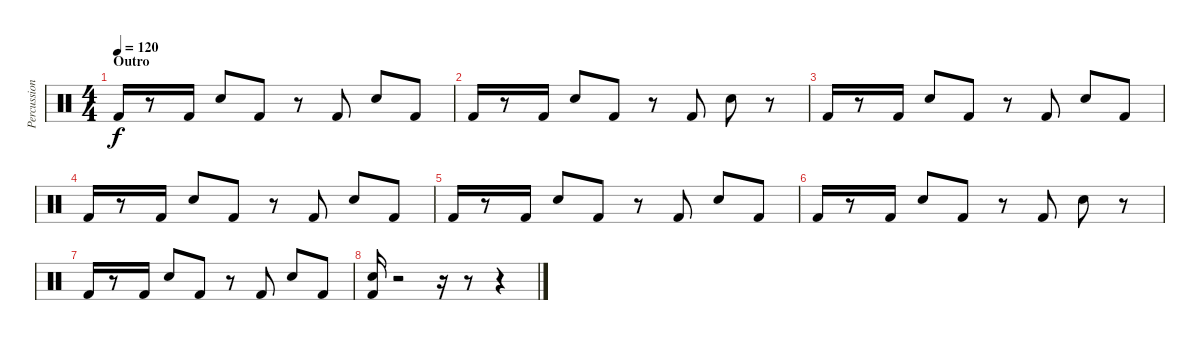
\track ("Percussion" "Percussion") {instrument percussion}
\staff {score}
\articulation defaults
\ts (4 4)
\section ("" "Outro")
\tempo 120
\clef neutral
\ks c "Kick (hit) 2".16{dy f}
r.8 "Kick (hit) 2".16 "Electric Snare (hit)".8 "Kick (hit) 2".8 r.8 "Kick (hit) 2".8 "Snare (hit) 2".8 "Kick (hit) 2".8 |
"Kick (hit) 2".16 r.8 "Kick (hit) 2".16 "Electric Snare (hit)".8 "Kick (hit) 2".8 r.8 "Kick (hit) 2".8 "Snare (hit) 2".8 r.8 |
"Kick (hit) 2".16 r.8 "Kick (hit) 2".16 "Electric Snare (hit)".8 "Kick (hit) 2".8 r.8 "Kick (hit) 2".8 "Snare (hit) 2".8 "Kick (hit) 2".8 |
"Kick (hit) 2".16 r.8 "Kick (hit) 2".16 "Electric Snare (hit)".8 "Kick (hit) 2".8 r.8 "Kick (hit) 2".8 "Snare (hit) 2".8 "Kick (hit) 2".8 |
"Kick (hit) 2".16 r.8 "Kick (hit) 2".16 "Electric Snare (hit)".8 "Kick (hit) 2".8 r.8 "Kick (hit) 2".8 "Snare (hit) 2".8 "Kick (hit) 2".8 |
"Kick (hit) 2".16 r.8 "Kick (hit) 2".16 "Electric Snare (hit)".8 "Kick (hit) 2".8 r.8 "Kick (hit) 2".8 "Snare (hit) 2".8 r.8 |
"Kick (hit) 2".16 r.8 "Kick (hit) 2".16 "Electric Snare (hit)".8 "Kick (hit) 2".8 r.8 "Kick (hit) 2".8 "Snare (hit) 2".8 "Kick (hit) 2".8 |
("Kick (hit) 2" "Snare (hit) 2").16 r.2 r.16 r.8 r.4
